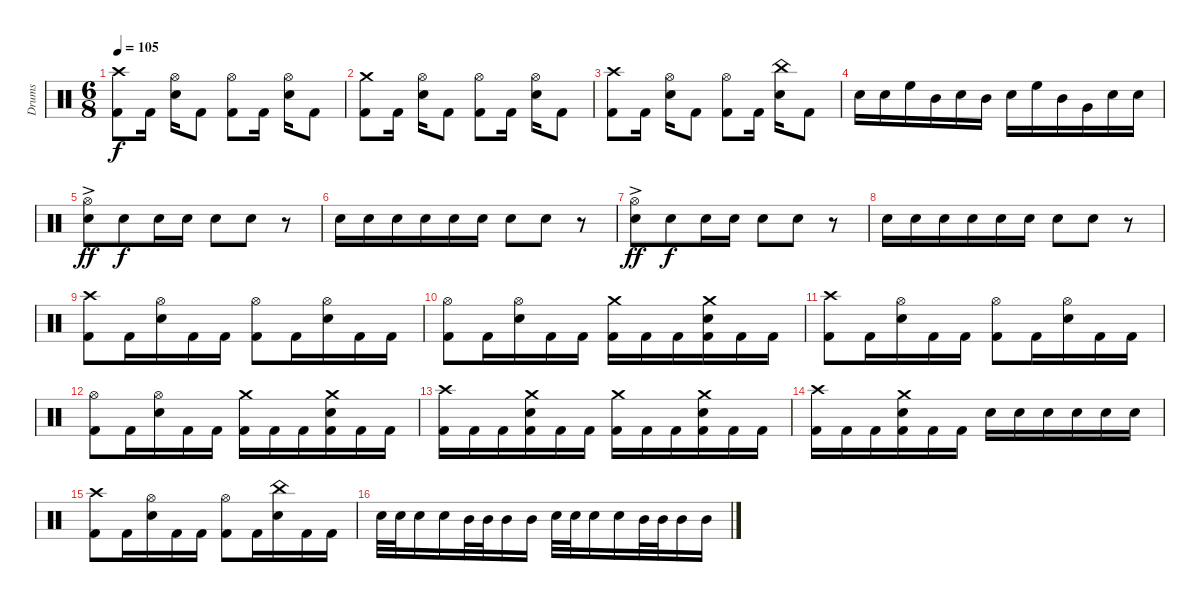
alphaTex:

\track ("Drums" "Drums") {instrument percussion}
\staff {score}
\articulation defaults
\ts (6 8)
\tempo 105
\clef neutral
\ks c
("Crash high (hit)" "Kick (hit) 2").8{dy f} "Kick (hit) 2".16{beam split} ("Hi-Hat (open)" "Electric Snare (hit)").16 "Kick (hit) 2".8 ("Hi-Hat (open)" "Kick (hit) 2").8 "Kick (hit) 2".16{beam split} ("Hi-Hat (open)" "Electric Snare (hit)").16 "Kick (hit) 2".8 |
("Crash medium (hit)" "Kick (hit) 2").8 "Kick (hit) 2".16{beam split} ("Hi-Hat (open)" "Electric Snare (hit)").16 "Kick (hit) 2".8 ("Hi-Hat (open)" "Kick (hit) 2").8 "Kick (hit) 2".16{beam split} ("Hi-Hat (open)" "Electric Snare (hit)").16 "Kick (hit) 2".8 |
("Crash high (hit)" "Kick (hit) 2").8 "Kick (hit) 2".16{beam split} ("Hi-Hat (open)" "Electric Snare (hit)").16 "Kick (hit) 2".8 ("Hi-Hat (open)" "Kick (hit) 2").8 "Kick (hit) 2".16{beam split} ("China (hit)" "Electric Snare (hit)").16 "Kick (hit) 2".8 |
"Electric Snare (hit)".16 "Electric Snare (hit)".16 "High Floor Tom (hit)".16 "Mid Tom (hit)".16 "Electric Snare (hit)".16 "Mid Tom (hit)".16 "Electric Snare (hit)".16 "High Floor Tom (hit)".16 "Mid Tom (hit)".16 "Very Low Tom (hit)".16 "Electric Snare (hit)".16 "Electric Snare (hit)".16 |
("Hi-Hat (open)"{ac} "Electric Snare (hit)").8{dy ff} "Electric Snare (hit)".8{dy f} "Electric Snare (hit)".16 "Electric Snare (hit)".16 "Electric Snare (hit)".8 "Electric Snare (hit)".8 r.8 |
"Electric Snare (hit)".16 "Electric Snare (hit)".16 "Electric Snare (hit)".16 "Electric Snare (hit)".16 "Electric Snare (hit)".16 "Electric Snare (hit)".16 "Electric Snare (hit)".8 "Electric Snare (hit)".8 r.8 |
("Hi-Hat (open)"{ac} "Electric Snare (hit)").8{dy ff} "Electric Snare (hit)".8{dy f} "Electric Snare (hit)".16 "Electric Snare (hit)".16 "Electric Snare (hit)".8 "Electric Snare (hit)".8 r.8 |
"Electric Snare (hit)".16 "Electric Snare (hit)".16 "Electric Snare (hit)".16 "Electric Snare (hit)".16 "Electric Snare (hit)".16 "Electric Snare (hit)".16 "Electric Snare (hit)".8 "Electric Snare (hit)".8 r.8 |
("Crash high (hit)" "Kick (hit) 2").8 "Kick (hit) 2".16 ("Hi-Hat (open)" "Electric Snare (hit)").16 "Kick (hit) 2".16 "Kick (hit) 2".16 ("Hi-Hat (open)" "Kick (hit) 2").8 "Kick (hit) 2".16 ("Hi-Hat (open)" "Electric Snare (hit)").16 "Kick (hit) 2".16 "Kick (hit) 2".16 |
("Hi-Hat (open)" "Kick (hit) 2").8 "Kick (hit) 2".16 ("Hi-Hat (open)" "Electric Snare (hit)").16 "Kick (hit) 2".16 "Kick (hit) 2".16 ("Crash medium (hit)" "Kick (hit) 2").16 "Kick (hit) 2".16 "Kick (hit) 2".16 ("Crash medium (hit)" "Electric Snare (hit)" "Kick (hit) 2").16 "Kick (hit) 2".16 "Kick (hit) 2".16 |
("Crash high (hit)" "Kick (hit) 2").8 "Kick (hit) 2".16 ("Hi-Hat (open)" "Electric Snare (hit)").16 "Kick (hit) 2".16 "Kick (hit) 2".16 ("Hi-Hat (open)" "Kick (hit) 2").8 "Kick (hit) 2".16 ("Hi-Hat (open)" "Electric Snare (hit)").16 "Kick (hit) 2".16 "Kick (hit) 2".16 |
("Hi-Hat (open)" "Kick (hit) 2").8 "Kick (hit) 2".16 ("Hi-Hat (open)" "Electric Snare (hit)").16 "Kick (hit) 2".16 "Kick (hit) 2".16 ("Crash medium (hit)" "Kick (hit) 2").16 "Kick (hit) 2".16 "Kick (hit) 2".16 ("Crash medium (hit)" "Electric Snare (hit)" "Kick (hit) 2").16 "Kick (hit) 2".16 "Kick (hit) 2".16 |
("Crash high (hit)" "Kick (hit) 2").16 "Kick (hit) 2".16 "Kick (hit) 2".16 ("Crash medium (hit)" "Electric Snare (hit)" "Kick (hit) 2").16 "Kick (hit) 2".16 "Kick (hit) 2".16 ("Crash medium (hit)" "Kick (hit) 2").16 "Kick (hit) 2".16 "Kick (hit) 2".16 ("Crash medium (hit)" "Electric Snare (hit)" "Kick (hit) 2").16 "Kick (hit) 2".16 "Kick (hit) 2".16 |
("Crash high (hit)" "Kick (hit) 2").16 "Kick (hit) 2".16 "Kick (hit) 2".16 ("Crash medium (hit)" "Electric Snare (hit)" "Kick (hit) 2").16 "Kick (hit) 2".16 "Kick (hit) 2".16 "Electric Snare (hit)".16 "Electric Snare (hit)".16 "Electric Snare (hit)".16 "Electric Snare (hit)".16 "Electric Snare (hit)".16 "Electric Snare (hit)".16 |
("Crash high (hit)" "Kick (hit) 2").8 "Kick (hit) 2".16 ("Hi-Hat (open)" "Electric Snare (hit)").16 "Kick (hit) 2".16 "Kick (hit) 2".16 ("Hi-Hat (open)" "Kick (hit) 2").8 "Kick (hit) 2".16 ("China (hit)" "Electric Snare (hit)").16 "Kick (hit) 2".16 "Kick (hit) 2".16 |
"Electric Snare (hit)".32 "Electric Snare (hit)".32 "Electric Snare (hit)".16 "Electric Snare (hit)".16 "Mid Tom (hit)".32 "Mid Tom (hit)".32 "Mid Tom (hit)".16 "Mid Tom (hit)".16 "Electric Snare (hit)".32 "Electric Snare (hit)".32 "Electric Snare (hit)".16 "Electric Snare (hit)".16 "Mid Tom (hit)".32 "Mid Tom (hit)".32 "Mid Tom (hit)".16 "Mid Tom (hit)".16
